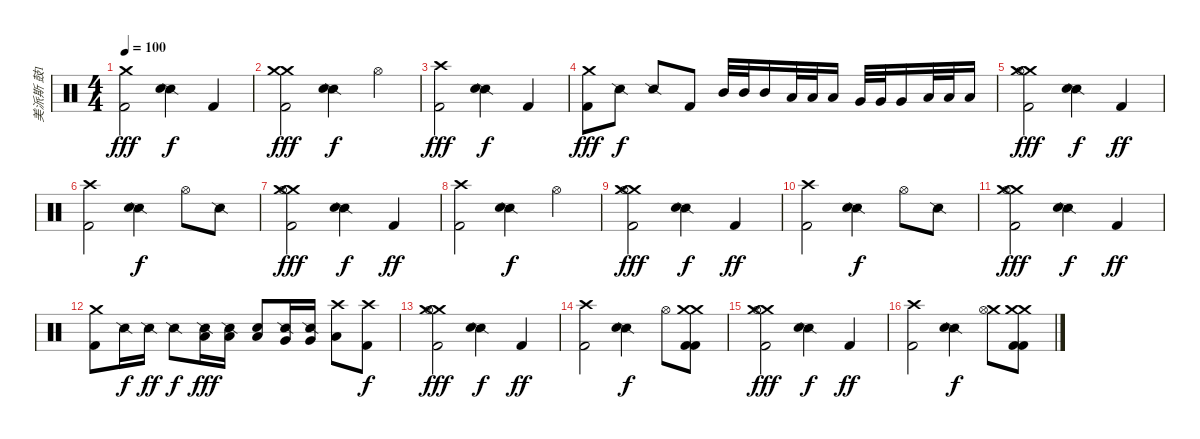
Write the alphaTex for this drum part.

\track ("美派斯 鼓1" "美派斯 鼓1") {instrument percussion}
\staff {score}
\articulation defaults
\ts (4 4)
\tempo 100
\clef neutral
\ks c
("Crash medium (hit)" "Kick (hit) 2").2{dy fff} ("Snare (side stick) 2" "Snare (hit) 2").4{dy f} "Kick (hit) 2".4 |
("Crash medium (hit)" "Crash medium (hit)" "Kick (hit) 2").2{dy fff} ("Snare (side stick) 2" "Snare (hit) 2").4{dy f} "Hi-Hat (open)".4 |
("Crash high (hit)" "Kick (hit) 2").2{dy fff} ("Snare (side stick) 2" "Snare (hit) 2").4{dy f} "Kick (hit) 2".4 |
("Crash medium (hit)" "Kick (hit) 2").8{dy fff} "Snare (side stick) 2".8{dy f} "Snare (side stick) 2".8 "Kick (hit) 2".8 "Mid Tom (hit)".32 "Mid Tom (hit)".32 "Mid Tom (hit)".16 "Low Tom (hit)".32 "Low Tom (hit)".32 "Low Tom (hit)".16 "Very Low Tom (hit)".32 "Very Low Tom (hit)".32 "Very Low Tom (hit)".16 "Low Floor Tom (hit)".32 "Low Floor Tom (hit)".32 "Low Floor Tom (hit)".16 |
("Crash medium (hit)" "Crash medium (hit)" "Kick (hit) 2" "Hi-Hat (open)").2{dy fff} ("Snare (side stick) 2" "Snare (hit) 2").4{dy f} "Kick (hit) 2".4{dy ff} |
("Crash high (hit)" "Kick (hit) 2").2 ("Snare (side stick) 2" "Snare (hit) 2").4{dy f} "Hi-Hat (open)".8 "Snare (side stick) 2".8 |
("Crash medium (hit)" "Crash medium (hit)" "Kick (hit) 2" "Hi-Hat (open)").2{dy fff} ("Snare (side stick) 2" "Snare (hit) 2").4{dy f} "Kick (hit) 2".4{dy ff} |
("Crash high (hit)" "Kick (hit) 2").2 ("Snare (side stick) 2" "Snare (hit) 2").4{dy f} "Hi-Hat (open)".4 |
("Crash medium (hit)" "Crash medium (hit)" "Kick (hit) 2" "Hi-Hat (open)").2{dy fff} ("Snare (side stick) 2" "Snare (hit) 2").4{dy f} "Kick (hit) 2".4{dy ff} |
("Crash high (hit)" "Kick (hit) 2").2 ("Snare (side stick) 2" "Snare (hit) 2").4{dy f} "Hi-Hat (open)".8 "Snare (side stick) 2".8 |
("Crash medium (hit)" "Crash medium (hit)" "Kick (hit) 2" "Hi-Hat (open)").2{dy fff} ("Snare (side stick) 2" "Snare (hit) 2").4{dy f} "Kick (hit) 2".4{dy ff} |
("Crash medium (hit)" "Kick (hit) 2").8 "Snare (side stick) 2".16{dy f} "Snare (side stick) 2".16{dy ff} "Snare (side stick) 2".8{dy f} ("Low Tom (hit)" "Snare (side stick) 2").16{dy fff} ("Low Tom (hit)" "Snare (side stick) 2").16 ("Low Tom (hit)" "Snare (hit)").8 ("Very Low Tom (hit)" "Snare (side stick) 2").16 ("Very Low Tom (hit)" "Snare (side stick) 2").16 ("Crash high (hit)" "Low Floor Tom (hit)").8 ("Crash high (hit)" "Kick (hit) 2").8{dy f} |
("Crash medium (hit)" "Crash medium (hit)" "Kick (hit) 2" "Hi-Hat (open)").2{dy fff} ("Snare (side stick) 2" "Snare (hit) 2").4{dy f} "Kick (hit) 2".4{dy ff} |
("Crash high (hit)" "Kick (hit) 2").2 ("Snare (side stick) 2" "Snare (hit) 2").4{dy f} "Hi-Hat (open)".8 ("Crash medium (hit)" "Crash medium (hit)" "Kick (hit) 2" "Kick (hit) 2").8 |
("Crash medium (hit)" "Crash medium (hit)" "Kick (hit) 2" "Hi-Hat (open)").2{dy fff} ("Snare (side stick) 2" "Snare (hit) 2").4{dy f} "Kick (hit) 2".4{dy ff} |
("Crash high (hit)" "Kick (hit) 2").2 ("Snare (side stick) 2" "Snare (hit) 2").4{dy f} ("Crash medium (hit)" "Hi-Hat (open)").8 ("Crash medium (hit)" "Crash medium (hit)" "Kick (hit) 2" "Kick (hit) 2").8
